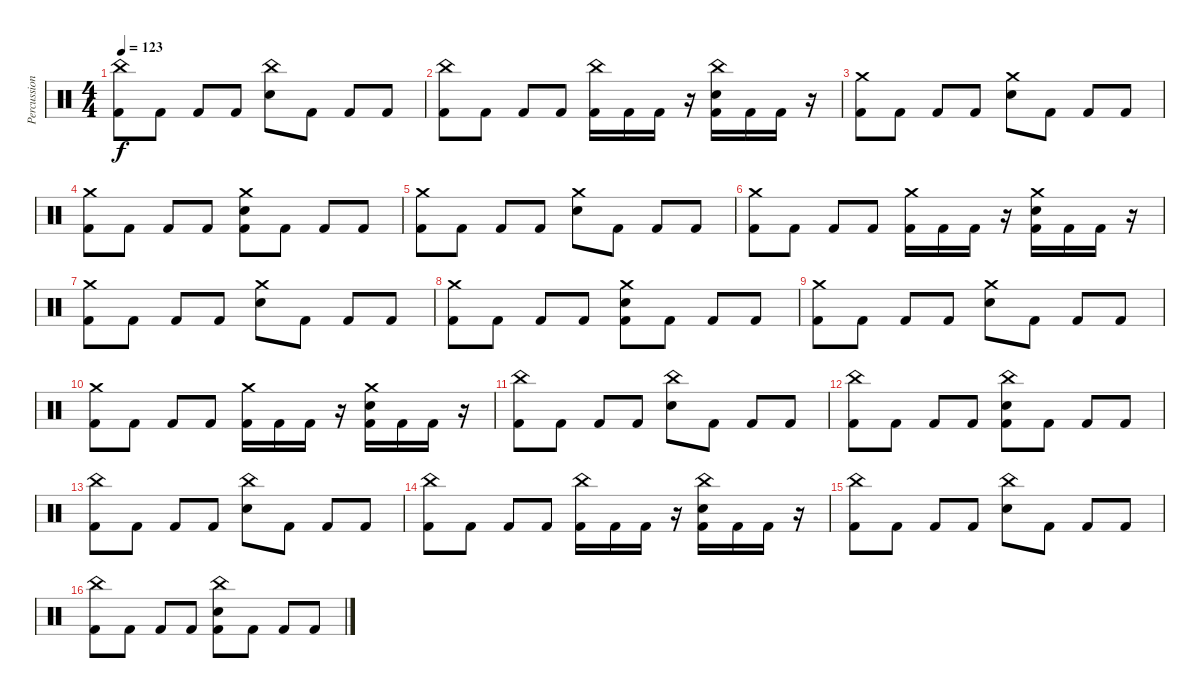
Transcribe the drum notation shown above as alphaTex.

\track ("Percussion" "Percussion") {instrument percussion}
\staff {score}
\articulation defaults
\ts (4 4)
\tempo 123
\clef neutral
\ks c
("China (hit)" "Kick (hit) 2").8{dy f} "Kick (hit) 2".8 "Kick (hit) 2".8 "Kick (hit) 2".8 ("China (hit)" "Snare (hit) 2").8 "Kick (hit) 2".8 "Kick (hit) 2".8 "Kick (hit) 2".8 |
("China (hit)" "Kick (hit) 2").8 "Kick (hit) 2".8 "Kick (hit) 2".8 "Kick (hit) 2".8 ("China (hit)" "Kick (hit) 2").16 "Kick (hit) 2".16 "Kick (hit) 2".16 r.16 ("China (hit)" "Snare (hit) 2" "Kick (hit) 2").16 "Kick (hit) 2".16 "Kick (hit) 2".16 r.16 |
("Crash medium (hit)" "Kick (hit) 2").8 "Kick (hit) 2".8 "Kick (hit) 2".8 "Kick (hit) 2".8 ("Crash medium (hit)" "Snare (hit) 2").8 "Kick (hit) 2".8 "Kick (hit) 2".8 "Kick (hit) 2".8 |
("Crash medium (hit)" "Kick (hit) 2").8 "Kick (hit) 2".8 "Kick (hit) 2".8 "Kick (hit) 2".8 ("Crash medium (hit)" "Snare (hit) 2" "Kick (hit) 2").8 "Kick (hit) 2".8 "Kick (hit) 2".8 "Kick (hit) 2".8 |
("Crash medium (hit)" "Kick (hit) 2").8 "Kick (hit) 2".8 "Kick (hit) 2".8 "Kick (hit) 2".8 ("Crash medium (hit)" "Snare (hit) 2").8 "Kick (hit) 2".8 "Kick (hit) 2".8 "Kick (hit) 2".8 |
("Crash medium (hit)" "Kick (hit) 2").8 "Kick (hit) 2".8 "Kick (hit) 2".8 "Kick (hit) 2".8 ("Crash medium (hit)" "Kick (hit) 2").16 "Kick (hit) 2".16 "Kick (hit) 2".16 r.16 ("Crash medium (hit)" "Snare (hit) 2" "Kick (hit) 2").16 "Kick (hit) 2".16 "Kick (hit) 2".16 r.16 |
("Crash medium (hit)" "Kick (hit) 2").8 "Kick (hit) 2".8 "Kick (hit) 2".8 "Kick (hit) 2".8 ("Crash medium (hit)" "Snare (hit) 2").8 "Kick (hit) 2".8 "Kick (hit) 2".8 "Kick (hit) 2".8 |
("Crash medium (hit)" "Kick (hit) 2").8 "Kick (hit) 2".8 "Kick (hit) 2".8 "Kick (hit) 2".8 ("Crash medium (hit)" "Snare (hit) 2" "Kick (hit) 2").8 "Kick (hit) 2".8 "Kick (hit) 2".8 "Kick (hit) 2".8 |
("Crash medium (hit)" "Kick (hit) 2").8 "Kick (hit) 2".8 "Kick (hit) 2".8 "Kick (hit) 2".8 ("Crash medium (hit)" "Snare (hit) 2").8 "Kick (hit) 2".8 "Kick (hit) 2".8 "Kick (hit) 2".8 |
("Crash medium (hit)" "Kick (hit) 2").8 "Kick (hit) 2".8 "Kick (hit) 2".8 "Kick (hit) 2".8 ("Crash medium (hit)" "Kick (hit) 2").16 "Kick (hit) 2".16 "Kick (hit) 2".16 r.16 ("Crash medium (hit)" "Snare (hit) 2" "Kick (hit) 2").16 "Kick (hit) 2".16 "Kick (hit) 2".16 r.16 |
("China (hit)" "Kick (hit) 2").8 "Kick (hit) 2".8 "Kick (hit) 2".8 "Kick (hit) 2".8 ("China (hit)" "Snare (hit) 2").8 "Kick (hit) 2".8 "Kick (hit) 2".8 "Kick (hit) 2".8 |
("China (hit)" "Kick (hit) 2").8 "Kick (hit) 2".8 "Kick (hit) 2".8 "Kick (hit) 2".8 ("China (hit)" "Snare (hit) 2" "Kick (hit) 2").8 "Kick (hit) 2".8 "Kick (hit) 2".8 "Kick (hit) 2".8 |
("China (hit)" "Kick (hit) 2").8 "Kick (hit) 2".8 "Kick (hit) 2".8 "Kick (hit) 2".8 ("China (hit)" "Snare (hit) 2").8 "Kick (hit) 2".8 "Kick (hit) 2".8 "Kick (hit) 2".8 |
("China (hit)" "Kick (hit) 2").8 "Kick (hit) 2".8 "Kick (hit) 2".8 "Kick (hit) 2".8 ("China (hit)" "Kick (hit) 2").16 "Kick (hit) 2".16 "Kick (hit) 2".16 r.16 ("China (hit)" "Snare (hit) 2" "Kick (hit) 2").16 "Kick (hit) 2".16 "Kick (hit) 2".16 r.16 |
("China (hit)" "Kick (hit) 2").8 "Kick (hit) 2".8 "Kick (hit) 2".8 "Kick (hit) 2".8 ("China (hit)" "Snare (hit) 2").8 "Kick (hit) 2".8 "Kick (hit) 2".8 "Kick (hit) 2".8 |
("China (hit)" "Kick (hit) 2").8 "Kick (hit) 2".8 "Kick (hit) 2".8 "Kick (hit) 2".8 ("China (hit)" "Snare (hit) 2" "Kick (hit) 2").8 "Kick (hit) 2".8 "Kick (hit) 2".8 "Kick (hit) 2".8
